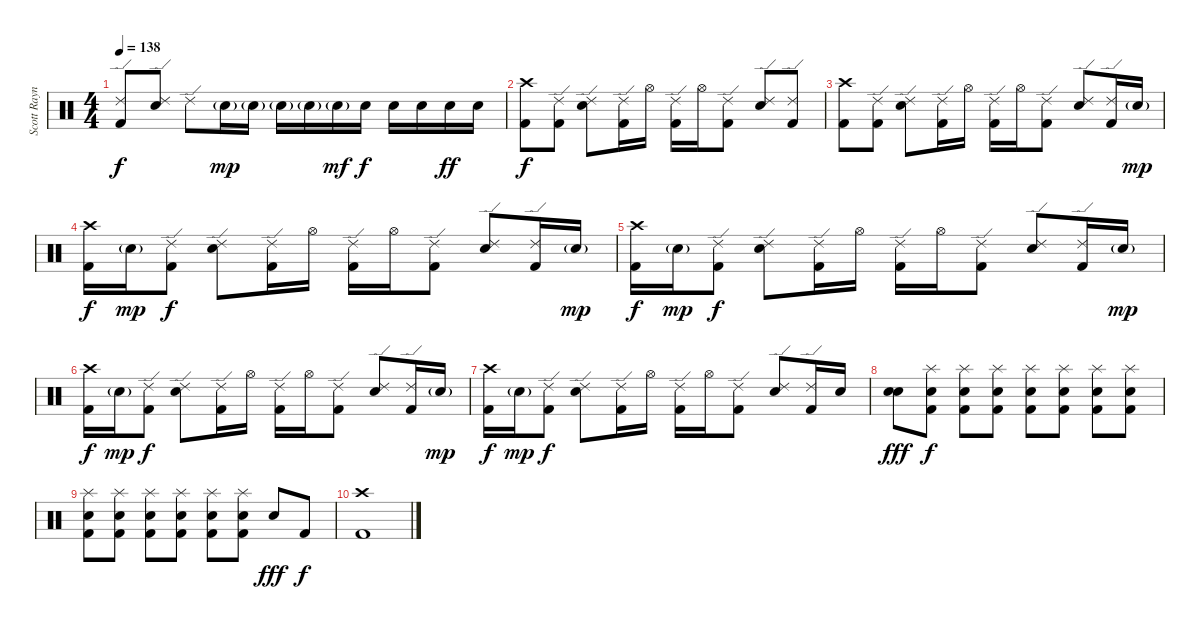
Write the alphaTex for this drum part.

\track ("Scott Raynor" "Scott Rayn") {instrument percussion}
\staff {score}
\articulation defaults
\ts (4 4)
\tempo 138
\clef neutral
\ks c
("Ride (edge) 2" "Kick (hit) 2").8{dy f} ("Ride (edge) 2" "Snare (hit) 2").8 "Ride (edge) 2".8 "Snare (hit) 2"{g}.16{dy mp} "Snare (hit) 2"{g}.16 "Snare (hit) 2"{g}.16 "Snare (hit) 2"{g}.16 "Snare (hit) 2"{g}.16{dy mf} "Snare (hit) 2".16{dy f} "Snare (hit) 2".16 "Snare (hit) 2".16 "Snare (hit) 2".16{dy ff} "Snare (hit) 2".16 |
("Crash high (hit)" "Kick (hit) 2").8{dy f} ("Ride (edge) 2" "Kick (hit) 2").8 ("Ride (edge) 2" "Snare (hit) 2").8 ("Ride (edge) 2" "Kick (hit) 2").16 "Hi-Hat (open)".16 ("Ride (edge) 2" "Kick (hit) 2").16 "Hi-Hat (open)".16 ("Ride (edge) 2" "Kick (hit) 2").8 ("Ride (edge) 2" "Snare (hit) 2").8 ("Ride (edge) 2" "Kick (hit) 2").8 |
("Crash high (hit)" "Kick (hit) 2").8 ("Ride (edge) 2" "Kick (hit) 2").8 ("Ride (edge) 2" "Snare (hit) 2").8 ("Ride (edge) 2" "Kick (hit) 2").16 "Hi-Hat (open)".16 ("Ride (edge) 2" "Kick (hit) 2").16 "Hi-Hat (open)".16 ("Ride (edge) 2" "Kick (hit) 2").8 ("Ride (edge) 2" "Snare (hit) 2").8 ("Ride (edge) 2" "Kick (hit) 2").16 "Snare (hit) 2"{g}.16{dy mp} |
("Crash high (hit)" "Kick (hit) 2").16{dy f} "Snare (hit) 2"{g}.16{dy mp} ("Ride (edge) 2" "Kick (hit) 2").8{dy f} ("Ride (edge) 2" "Snare (hit) 2").8 ("Ride (edge) 2" "Kick (hit) 2").16 "Hi-Hat (open)".16 ("Ride (edge) 2" "Kick (hit) 2").16 "Hi-Hat (open)".16 ("Ride (edge) 2" "Kick (hit) 2").8 ("Ride (edge) 2" "Snare (hit) 2").8 ("Ride (edge) 2" "Kick (hit) 2").16 "Snare (hit) 2"{g}.16{dy mp} |
("Crash high (hit)" "Kick (hit) 2").16{dy f} "Snare (hit) 2"{g}.16{dy mp} ("Ride (edge) 2" "Kick (hit) 2").8{dy f} ("Ride (edge) 2" "Snare (hit) 2").8 ("Ride (edge) 2" "Kick (hit) 2").16 "Hi-Hat (open)".16 ("Ride (edge) 2" "Kick (hit) 2").16 "Hi-Hat (open)".16 ("Ride (edge) 2" "Kick (hit) 2").8 ("Ride (edge) 2" "Snare (hit) 2").8 ("Ride (edge) 2" "Kick (hit) 2").16 "Snare (hit) 2"{g}.16{dy mp} |
("Crash high (hit)" "Kick (hit) 2").16{dy f} "Snare (hit) 2"{g}.16{dy mp} ("Ride (edge) 2" "Kick (hit) 2").8{dy f} ("Ride (edge) 2" "Snare (hit) 2").8 ("Ride (edge) 2" "Kick (hit) 2").16 "Hi-Hat (open)".16 ("Ride (edge) 2" "Kick (hit) 2").16 "Hi-Hat (open)".16 ("Ride (edge) 2" "Kick (hit) 2").8 ("Ride (edge) 2" "Snare (hit) 2").8 ("Ride (edge) 2" "Kick (hit) 2").16 "Snare (hit) 2"{g}.16{dy mp} |
("Crash high (hit)" "Kick (hit) 2").16{dy f} "Snare (hit) 2"{g}.16{dy mp} ("Ride (edge) 2" "Kick (hit) 2").8{dy f} ("Ride (edge) 2" "Snare (hit) 2").8 ("Ride (edge) 2" "Kick (hit) 2").16 "Hi-Hat (open)".16 ("Ride (edge) 2" "Kick (hit) 2").16 "Hi-Hat (open)".16 ("Ride (edge) 2" "Kick (hit) 2").8 ("Ride (edge) 2" "Snare (hit) 2").8 ("Ride (edge) 2" "Kick (hit) 2").16 "Snare (hit) 2".16 |
("Snare (hit) 2" "Snare (hit) 2").8{dy fff volume 8} ("Snare (hit) 2" "Splash (hit)" "Kick (hit) 2").8{dy f volume 14} ("Snare (hit) 2" "Splash (hit)" "Kick (hit) 2").8 ("Snare (hit) 2" "Splash (hit)" "Kick (hit) 2").8 ("Snare (hit) 2" "Splash (hit)" "Kick (hit) 2").8 ("Snare (hit) 2" "Splash (hit)" "Kick (hit) 2").8 ("Snare (hit) 2" "Splash (hit)" "Kick (hit) 2").8 ("Snare (hit) 2" "Splash (hit)" "Kick (hit) 2").8 |
("Snare (hit) 2" "Splash (hit)" "Kick (hit) 2").8 ("Snare (hit) 2" "Splash (hit)" "Kick (hit) 2").8 ("Snare (hit) 2" "Splash (hit)" "Kick (hit) 2").8 ("Snare (hit) 2" "Splash (hit)" "Kick (hit) 2").8 ("Snare (hit) 2" "Splash (hit)" "Kick (hit) 2").8 ("Snare (hit) 2" "Splash (hit)" "Kick (hit) 2").8 "Snare (hit) 2".8{dy fff} "Kick (hit) 2".8{dy f} |
("Crash high (hit)" "Kick (hit) 2").1
